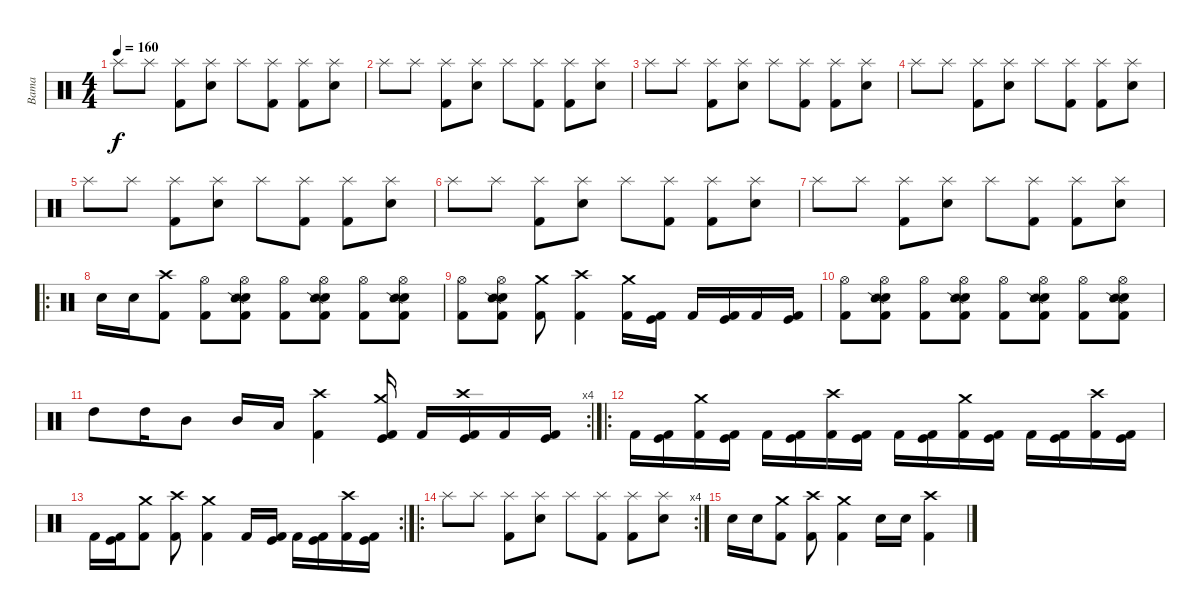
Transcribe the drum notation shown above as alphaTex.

\track ("Bama" "Bama") {instrument percussion}
\staff {score}
\articulation defaults
\ts (4 4)
\tempo 160
\clef neutral
\ks c "Splash (hit)".8{dy f} "Splash (hit)".8
("Splash (hit)" "Kick (hit) 2").8 ("Splash (hit)" "Electric Snare (hit)").8 "Splash (hit)".8 ("Splash (hit)" "Kick (hit) 2").8 ("Splash (hit)" "Kick (hit) 2").8 ("Splash (hit)" "Electric Snare (hit)").8 |
"Splash (hit)".8 "Splash (hit)".8 ("Splash (hit)" "Kick (hit) 2").8 ("Splash (hit)" "Electric Snare (hit)").8 "Splash (hit)".8 ("Splash (hit)" "Kick (hit) 2").8 ("Splash (hit)" "Kick (hit) 2").8 ("Splash (hit)" "Electric Snare (hit)").8 |
"Splash (hit)".8 "Splash (hit)".8 ("Splash (hit)" "Kick (hit) 2").8 ("Splash (hit)" "Electric Snare (hit)").8 "Splash (hit)".8 ("Splash (hit)" "Kick (hit) 2").8 ("Splash (hit)" "Kick (hit) 2").8 ("Splash (hit)" "Electric Snare (hit)").8 |
"Splash (hit)".8 "Splash (hit)".8 ("Splash (hit)" "Kick (hit) 2").8 ("Splash (hit)" "Electric Snare (hit)").8 "Splash (hit)".8 ("Splash (hit)" "Kick (hit) 2").8 ("Splash (hit)" "Kick (hit) 2").8 ("Splash (hit)" "Electric Snare (hit)").8 |
"Splash (hit)".8 "Splash (hit)".8 ("Splash (hit)" "Kick (hit) 2").8 ("Splash (hit)" "Electric Snare (hit)").8 "Splash (hit)".8 ("Splash (hit)" "Kick (hit) 2").8 ("Splash (hit)" "Kick (hit) 2").8 ("Splash (hit)" "Electric Snare (hit)").8 |
"Splash (hit)".8 "Splash (hit)".8 ("Splash (hit)" "Kick (hit) 2").8 ("Splash (hit)" "Electric Snare (hit)").8 "Splash (hit)".8 ("Splash (hit)" "Kick (hit) 2").8 ("Splash (hit)" "Kick (hit) 2").8 ("Splash (hit)" "Electric Snare (hit)").8 |
"Splash (hit)".8 "Splash (hit)".8 ("Splash (hit)" "Kick (hit) 2").8 ("Splash (hit)" "Electric Snare (hit)").8 "Splash (hit)".8 ("Splash (hit)" "Kick (hit) 2").8 ("Splash (hit)" "Kick (hit) 2").8 ("Splash (hit)" "Electric Snare (hit)").8 |
\ro "Electric Snare (hit)".16 "Electric Snare (hit)".16
("Crash high (hit)" "Kick (hit) 2").8 ("Hi-Hat (open)" "Kick (hit) 2").8 ("Hi-Hat (open)" "Electric Snare (hit)" "Snare (side stick) 2" "Kick (hit) 2").8 ("Hi-Hat (open)" "Kick (hit) 2").8 ("Hi-Hat (open)" "Electric Snare (hit)" "Snare (side stick) 2" "Kick (hit) 2").8 ("Hi-Hat (open)" "Kick (hit) 2").8 ("Hi-Hat (open)" "Electric Snare (hit)" "Snare (side stick) 2" "Kick (hit) 2").8 |
("Hi-Hat (open)" "Kick (hit) 2").8 ("Hi-Hat (open)" "Electric Snare (hit)" "Snare (side stick) 2" "Kick (hit) 2").8 ("Crash medium (hit)" "Kick (hit) 2").8 ("Crash high (hit)" "Kick (hit) 2").4 ("Crash medium (hit)" "Kick (hit) 2").16 ("Kick (hit)" "Kick (hit) 2").16 "Kick (hit) 2".16 ("Kick (hit)" "Kick (hit) 2").16 "Kick (hit) 2".16 ("Kick (hit)" "Kick (hit) 2").16 |
("Hi-Hat (open)" "Kick (hit) 2").8 ("Hi-Hat (open)" "Electric Snare (hit)" "Snare (side stick) 2" "Kick (hit) 2").8 ("Hi-Hat (open)" "Kick (hit) 2").8 ("Hi-Hat (open)" "Electric Snare (hit)" "Snare (side stick) 2" "Kick (hit) 2").8 ("Hi-Hat (open)" "Kick (hit) 2").8 ("Hi-Hat (open)" "Electric Snare (hit)" "Snare (side stick) 2" "Kick (hit) 2").8 ("Hi-Hat (open)" "Kick (hit) 2").8 ("Hi-Hat (open)" "Electric Snare (hit)" "Snare (side stick) 2" "Kick (hit) 2").8 |
\rc 4 "High Tom (hit)".8 "High Tom (hit)".16 "Mid Tom (hit)".8 "Mid Tom (hit)".16 "Low Tom (hit)".16
("Crash high (hit)" "Kick (hit) 2").4 ("Crash medium (hit)" "Kick (hit)" "Kick (hit) 2").16 "Kick (hit) 2".16 ("Crash high (hit)" "Kick (hit)" "Kick (hit) 2").16 "Kick (hit) 2".16 ("Kick (hit)" "Kick (hit) 2").16 |
\ro "Kick (hit) 2".16
("Kick (hit)" "Kick (hit) 2").16 ("Crash medium (hit)" "Kick (hit) 2").16 ("Kick (hit)" "Kick (hit) 2").16 "Kick (hit) 2".16 ("Kick (hit)" "Kick (hit) 2").16 ("Crash high (hit)" "Kick (hit) 2").16 ("Kick (hit)" "Kick (hit) 2").16 "Kick (hit) 2".16 ("Kick (hit)" "Kick (hit) 2").16 ("Crash medium (hit)" "Kick (hit) 2").16 ("Kick (hit)" "Kick (hit) 2").16 "Kick (hit) 2".16 ("Kick (hit)" "Kick (hit) 2").16 ("Crash high (hit)" "Kick (hit) 2").16 ("Kick (hit)" "Kick (hit) 2").16 |
\rc 2 "Kick (hit) 2".16
("Kick (hit)" "Kick (hit) 2").16 ("Crash medium (hit)" "Kick (hit) 2").8 ("Crash high (hit)" "Kick (hit) 2").8 ("Crash medium (hit)" "Kick (hit) 2").4 "Kick (hit) 2".16 ("Kick (hit)" "Kick (hit) 2").16 "Kick (hit) 2".16 ("Kick (hit)" "Kick (hit) 2").16 ("Crash high (hit)" "Kick (hit) 2").16 ("Kick (hit)" "Kick (hit) 2").16 |
\ro
\rc 4 "Splash (hit)".8 "Splash (hit)".8
("Splash (hit)" "Kick (hit) 2").8 ("Splash (hit)" "Electric Snare (hit)").8 "Splash (hit)".8 ("Splash (hit)" "Kick (hit) 2").8 ("Splash (hit)" "Kick (hit) 2").8 ("Splash (hit)" "Electric Snare (hit)").8 |
"Electric Snare (hit)".16 "Electric Snare (hit)".16 ("Crash medium (hit)" "Kick (hit) 2").8 ("Crash high (hit)" "Kick (hit) 2").8 ("Crash medium (hit)" "Kick (hit) 2").4 "Electric Snare (hit)".16 "Electric Snare (hit)".16 ("Crash high (hit)" "Kick (hit) 2").4
